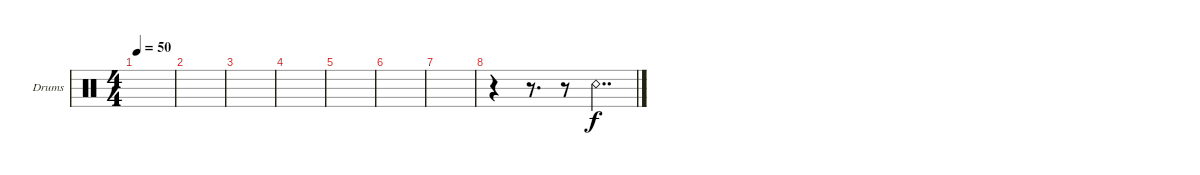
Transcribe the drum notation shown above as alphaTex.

\defaultSystemsLayout 4
\bracketExtendMode groupsimilarinstruments
\firstSystemTrackNameOrientation horizontal
\otherSystemsTrackNameOrientation horizontal
\track ("Drumkit" "Drums") {instrument percussion}
\staff {score}
\articulation defaults
\ts (4 4)
\tempo 50
\clef neutral
\scale
0.333333
\ks c
|
\scale
0.333333 |
\scale
0.333333 |
\scale
0.333333 |
\scale
0.333333 |
|
|
r.4 r.8{d} r.8 "Snare (rim shot)".4{dd}
